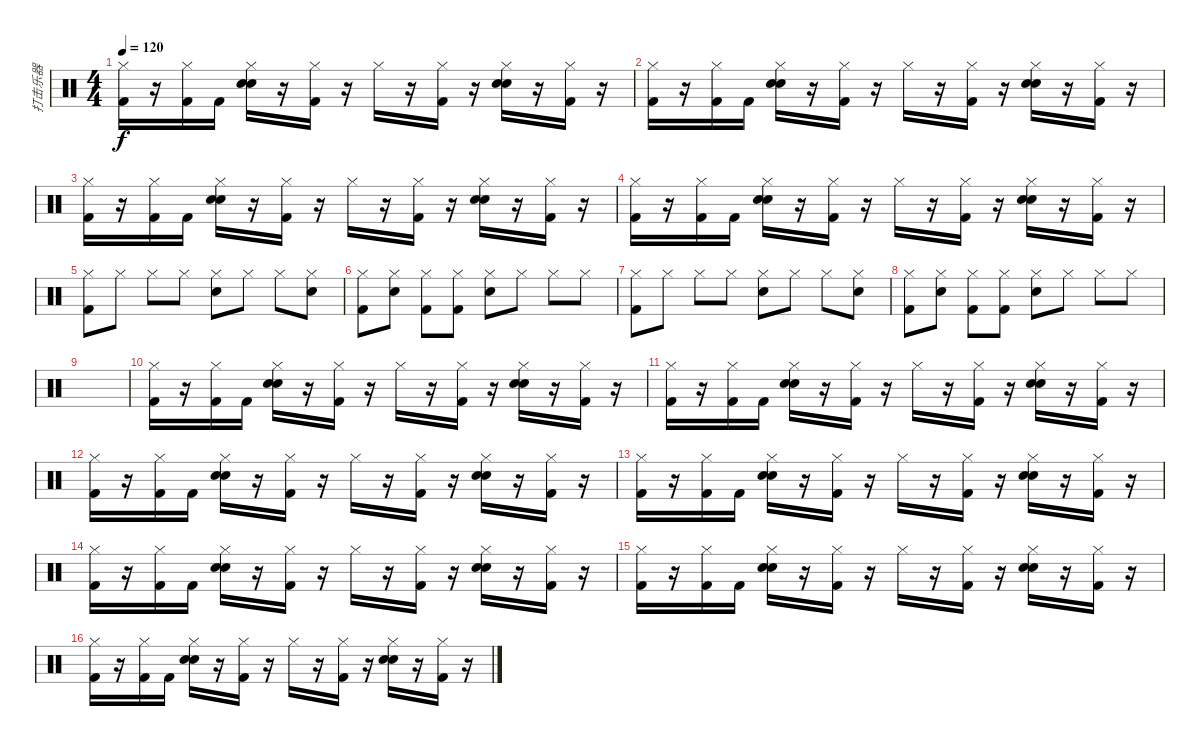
\track ("打击乐器" "打击乐器") {instrument percussion}
\staff {score}
\articulation defaults
\ts (4 4)
\tempo 120
\clef neutral
\ks c
("Hi-Hat (closed)" "Kick (hit) 2").16{dy f} r.16 ("Hi-Hat (closed)" "Kick (hit) 2").16 "Kick (hit) 2".16 ("Hi-Hat (closed)" "Electric Snare (hit)" "Snare (hit) 2").16 r.16 ("Hi-Hat (closed)" "Kick (hit) 2").16 r.16 "Hi-Hat (closed)".16 r.16 ("Hi-Hat (closed)" "Kick (hit) 2").16 r.16 ("Hi-Hat (closed)" "Electric Snare (hit)" "Snare (hit) 2").16 r.16 ("Hi-Hat (closed)" "Kick (hit) 2").16 r.16 |
("Hi-Hat (closed)" "Kick (hit) 2").16 r.16 ("Hi-Hat (closed)" "Kick (hit) 2").16 "Kick (hit) 2".16 ("Hi-Hat (closed)" "Electric Snare (hit)" "Snare (hit) 2").16 r.16 ("Hi-Hat (closed)" "Kick (hit) 2").16 r.16 "Hi-Hat (closed)".16 r.16 ("Hi-Hat (closed)" "Kick (hit) 2").16 r.16 ("Hi-Hat (closed)" "Electric Snare (hit)" "Snare (hit) 2").16 r.16 ("Hi-Hat (closed)" "Kick (hit) 2").16 r.16 |
("Hi-Hat (closed)" "Kick (hit) 2").16 r.16 ("Hi-Hat (closed)" "Kick (hit) 2").16 "Kick (hit) 2".16 ("Hi-Hat (closed)" "Electric Snare (hit)" "Snare (hit) 2").16 r.16 ("Hi-Hat (closed)" "Kick (hit) 2").16 r.16 "Hi-Hat (closed)".16 r.16 ("Hi-Hat (closed)" "Kick (hit) 2").16 r.16 ("Hi-Hat (closed)" "Electric Snare (hit)" "Snare (hit) 2").16 r.16 ("Hi-Hat (closed)" "Kick (hit) 2").16 r.16 |
("Hi-Hat (closed)" "Kick (hit) 2").16 r.16 ("Hi-Hat (closed)" "Kick (hit) 2").16 "Kick (hit) 2".16 ("Hi-Hat (closed)" "Electric Snare (hit)" "Snare (hit) 2").16 r.16 ("Hi-Hat (closed)" "Kick (hit) 2").16 r.16 "Hi-Hat (closed)".16 r.16 ("Hi-Hat (closed)" "Kick (hit) 2").16 r.16 ("Hi-Hat (closed)" "Electric Snare (hit)" "Snare (hit) 2").16 r.16 ("Hi-Hat (closed)" "Kick (hit) 2").16 r.16 |
("Hi-Hat (closed)" "Kick (hit) 2").8 "Hi-Hat (closed)".8 "Hi-Hat (closed)".8 "Hi-Hat (closed)".8 ("Hi-Hat (closed)" "Electric Snare (hit)").8 "Hi-Hat (closed)".8 "Hi-Hat (closed)".8 ("Hi-Hat (closed)" "Electric Snare (hit)").8 |
("Hi-Hat (closed)" "Kick (hit) 2").8 ("Hi-Hat (closed)" "Electric Snare (hit)").8 ("Hi-Hat (closed)" "Kick (hit) 2").8 ("Hi-Hat (closed)" "Kick (hit) 2").8 ("Hi-Hat (closed)" "Electric Snare (hit)").8 "Hi-Hat (closed)".8 "Hi-Hat (closed)".8 "Hi-Hat (closed)".8 |
("Hi-Hat (closed)" "Kick (hit) 2").8 "Hi-Hat (closed)".8 "Hi-Hat (closed)".8 "Hi-Hat (closed)".8 ("Hi-Hat (closed)" "Electric Snare (hit)").8 "Hi-Hat (closed)".8 "Hi-Hat (closed)".8 ("Hi-Hat (closed)" "Electric Snare (hit)").8 |
("Hi-Hat (closed)" "Kick (hit) 2").8 ("Hi-Hat (closed)" "Electric Snare (hit)").8 ("Hi-Hat (closed)" "Kick (hit) 2").8 ("Hi-Hat (closed)" "Kick (hit) 2").8 ("Hi-Hat (closed)" "Electric Snare (hit)").8 "Hi-Hat (closed)".8 "Hi-Hat (closed)".8 "Hi-Hat (closed)".8 |
|
("Hi-Hat (closed)" "Kick (hit) 2").16 r.16 ("Hi-Hat (closed)" "Kick (hit) 2").16 "Kick (hit) 2".16 ("Hi-Hat (closed)" "Electric Snare (hit)" "Snare (hit) 2").16 r.16 ("Hi-Hat (closed)" "Kick (hit) 2").16 r.16 "Hi-Hat (closed)".16 r.16 ("Hi-Hat (closed)" "Kick (hit) 2").16 r.16 ("Hi-Hat (closed)" "Electric Snare (hit)" "Snare (hit) 2").16 r.16 ("Hi-Hat (closed)" "Kick (hit) 2").16 r.16 |
("Hi-Hat (closed)" "Kick (hit) 2").16 r.16 ("Hi-Hat (closed)" "Kick (hit) 2").16 "Kick (hit) 2".16 ("Hi-Hat (closed)" "Electric Snare (hit)" "Snare (hit) 2").16 r.16 ("Hi-Hat (closed)" "Kick (hit) 2").16 r.16 "Hi-Hat (closed)".16 r.16 ("Hi-Hat (closed)" "Kick (hit) 2").16 r.16 ("Hi-Hat (closed)" "Electric Snare (hit)" "Snare (hit) 2").16 r.16 ("Hi-Hat (closed)" "Kick (hit) 2").16 r.16 |
("Hi-Hat (closed)" "Kick (hit) 2").16 r.16 ("Hi-Hat (closed)" "Kick (hit) 2").16 "Kick (hit) 2".16 ("Hi-Hat (closed)" "Electric Snare (hit)" "Snare (hit) 2").16 r.16 ("Hi-Hat (closed)" "Kick (hit) 2").16 r.16 "Hi-Hat (closed)".16 r.16 ("Hi-Hat (closed)" "Kick (hit) 2").16 r.16 ("Hi-Hat (closed)" "Electric Snare (hit)" "Snare (hit) 2").16 r.16 ("Hi-Hat (closed)" "Kick (hit) 2").16 r.16 |
("Hi-Hat (closed)" "Kick (hit) 2").16 r.16 ("Hi-Hat (closed)" "Kick (hit) 2").16 "Kick (hit) 2".16 ("Hi-Hat (closed)" "Electric Snare (hit)" "Snare (hit) 2").16 r.16 ("Hi-Hat (closed)" "Kick (hit) 2").16 r.16 "Hi-Hat (closed)".16 r.16 ("Hi-Hat (closed)" "Kick (hit) 2").16 r.16 ("Hi-Hat (closed)" "Electric Snare (hit)" "Snare (hit) 2").16 r.16 ("Hi-Hat (closed)" "Kick (hit) 2").16 r.16 |
("Hi-Hat (closed)" "Kick (hit) 2").16 r.16 ("Hi-Hat (closed)" "Kick (hit) 2").16 "Kick (hit) 2".16 ("Hi-Hat (closed)" "Electric Snare (hit)" "Snare (hit) 2").16 r.16 ("Hi-Hat (closed)" "Kick (hit) 2").16 r.16 "Hi-Hat (closed)".16 r.16 ("Hi-Hat (closed)" "Kick (hit) 2").16 r.16 ("Hi-Hat (closed)" "Electric Snare (hit)" "Snare (hit) 2").16 r.16 ("Hi-Hat (closed)" "Kick (hit) 2").16 r.16 |
("Hi-Hat (closed)" "Kick (hit) 2").16 r.16 ("Hi-Hat (closed)" "Kick (hit) 2").16 "Kick (hit) 2".16 ("Hi-Hat (closed)" "Electric Snare (hit)" "Snare (hit) 2").16 r.16 ("Hi-Hat (closed)" "Kick (hit) 2").16 r.16 "Hi-Hat (closed)".16 r.16 ("Hi-Hat (closed)" "Kick (hit) 2").16 r.16 ("Hi-Hat (closed)" "Electric Snare (hit)" "Snare (hit) 2").16 r.16 ("Hi-Hat (closed)" "Kick (hit) 2").16 r.16 |
("Hi-Hat (closed)" "Kick (hit) 2").16 r.16 ("Hi-Hat (closed)" "Kick (hit) 2").16 "Kick (hit) 2".16 ("Hi-Hat (closed)" "Electric Snare (hit)" "Snare (hit) 2").16 r.16 ("Hi-Hat (closed)" "Kick (hit) 2").16 r.16 "Hi-Hat (closed)".16 r.16 ("Hi-Hat (closed)" "Kick (hit) 2").16 r.16 ("Hi-Hat (closed)" "Electric Snare (hit)" "Snare (hit) 2").16 r.16 ("Hi-Hat (closed)" "Kick (hit) 2").16 r.16
